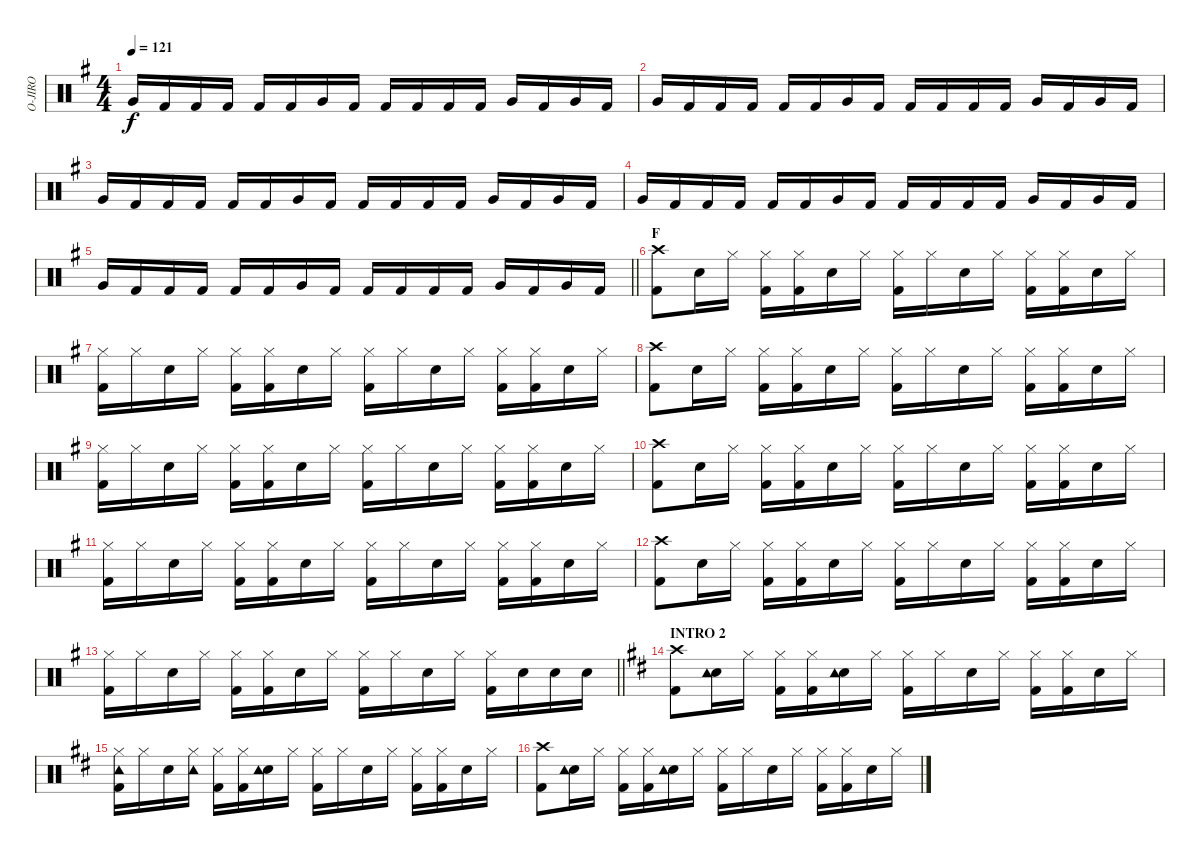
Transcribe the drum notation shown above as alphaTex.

\track ("O-JIRO" "O-JIRO") {instrument percussion}
\staff {score}
\articulation defaults
\ts (4 4)
\tempo 121
\clef neutral
\ks g "Very Low Tom (hit)".16{dy f} "Kick (hit) 2".16 "Kick (hit) 2".16 "Kick (hit) 2".16 "Kick (hit) 2".16 "Kick (hit) 2".16 "Very Low Tom (hit)".16 "Kick (hit) 2".16 "Kick (hit) 2".16 "Kick (hit) 2".16 "Kick (hit) 2".16 "Kick (hit) 2".16 "Very Low Tom (hit)".16 "Kick (hit) 2".16 "Very Low Tom (hit)".16 "Kick (hit) 2".16
|
"Very Low Tom (hit)".16 "Kick (hit) 2".16 "Kick (hit) 2".16 "Kick (hit) 2".16 "Kick (hit) 2".16 "Kick (hit) 2".16 "Very Low Tom (hit)".16 "Kick (hit) 2".16 "Kick (hit) 2".16 "Kick (hit) 2".16 "Kick (hit) 2".16 "Kick (hit) 2".16 "Very Low Tom (hit)".16 "Kick (hit) 2".16 "Very Low Tom (hit)".16 "Kick (hit) 2".16 |
"Very Low Tom (hit)".16 "Kick (hit) 2".16 "Kick (hit) 2".16 "Kick (hit) 2".16 "Kick (hit) 2".16 "Kick (hit) 2".16 "Very Low Tom (hit)".16 "Kick (hit) 2".16 "Kick (hit) 2".16 "Kick (hit) 2".16 "Kick (hit) 2".16 "Kick (hit) 2".16 "Very Low Tom (hit)".16 "Kick (hit) 2".16 "Very Low Tom (hit)".16 "Kick (hit) 2".16 |
"Very Low Tom (hit)".16 "Kick (hit) 2".16 "Kick (hit) 2".16 "Kick (hit) 2".16 "Kick (hit) 2".16 "Kick (hit) 2".16 "Very Low Tom (hit)".16 "Kick (hit) 2".16 "Kick (hit) 2".16 "Kick (hit) 2".16 "Kick (hit) 2".16 "Kick (hit) 2".16 "Very Low Tom (hit)".16 "Kick (hit) 2".16 "Very Low Tom (hit)".16 "Kick (hit) 2".16 |
\barLineRight lightlight "Very Low Tom (hit)".16 "Kick (hit) 2".16 "Kick (hit) 2".16 "Kick (hit) 2".16 "Kick (hit) 2".16 "Kick (hit) 2".16 "Very Low Tom (hit)".16 "Kick (hit) 2".16 "Kick (hit) 2".16 "Kick (hit) 2".16 "Kick (hit) 2".16 "Kick (hit) 2".16 "Very Low Tom (hit)".16 "Kick (hit) 2".16 "Very Low Tom (hit)".16 "Kick (hit) 2".16
|
\section ("" "F")
("Crash high (hit)" "Kick (hit) 2").8 "Snare (hit) 2".16 "Hi-Hat (closed)".16 ("Hi-Hat (closed)" "Kick (hit) 2").16 ("Hi-Hat (closed)" "Kick (hit) 2").16 "Snare (hit) 2".16 "Hi-Hat (closed)".16 ("Hi-Hat (closed)" "Kick (hit) 2").16 "Hi-Hat (closed)".16 "Snare (hit) 2".16 "Hi-Hat (closed)".16 ("Hi-Hat (closed)" "Kick (hit) 2").16 ("Hi-Hat (closed)" "Kick (hit) 2").16 "Snare (hit) 2".16 "Hi-Hat (closed)".16 |
("Hi-Hat (closed)" "Kick (hit) 2").16 "Hi-Hat (closed)".16 "Snare (hit) 2".16 "Hi-Hat (closed)".16 ("Hi-Hat (closed)" "Kick (hit) 2").16 ("Hi-Hat (closed)" "Kick (hit) 2").16 "Snare (hit) 2".16 "Hi-Hat (closed)".16 ("Hi-Hat (closed)" "Kick (hit) 2").16 "Hi-Hat (closed)".16 "Snare (hit) 2".16 "Hi-Hat (closed)".16 ("Hi-Hat (closed)" "Kick (hit) 2").16 ("Hi-Hat (closed)" "Kick (hit) 2").16 "Snare (hit) 2".16 "Hi-Hat (closed)".16 |
("Crash high (hit)" "Kick (hit) 2").8 "Snare (hit) 2".16 "Hi-Hat (closed)".16 ("Hi-Hat (closed)" "Kick (hit) 2").16 ("Hi-Hat (closed)" "Kick (hit) 2").16 "Snare (hit) 2".16 "Hi-Hat (closed)".16 ("Hi-Hat (closed)" "Kick (hit) 2").16 "Hi-Hat (closed)".16 "Snare (hit) 2".16 "Hi-Hat (closed)".16 ("Hi-Hat (closed)" "Kick (hit) 2").16 ("Hi-Hat (closed)" "Kick (hit) 2").16 "Snare (hit) 2".16 "Hi-Hat (closed)".16 |
("Hi-Hat (closed)" "Kick (hit) 2").16 "Hi-Hat (closed)".16 "Snare (hit) 2".16 "Hi-Hat (closed)".16 ("Hi-Hat (closed)" "Kick (hit) 2").16 ("Hi-Hat (closed)" "Kick (hit) 2").16 "Snare (hit) 2".16 "Hi-Hat (closed)".16 ("Hi-Hat (closed)" "Kick (hit) 2").16 "Hi-Hat (closed)".16 "Snare (hit) 2".16 "Hi-Hat (closed)".16 ("Hi-Hat (closed)" "Kick (hit) 2").16 ("Hi-Hat (closed)" "Kick (hit) 2").16 "Snare (hit) 2".16 "Hi-Hat (closed)".16 |
("Crash high (hit)" "Kick (hit) 2").8 "Snare (hit) 2".16 "Hi-Hat (closed)".16 ("Hi-Hat (closed)" "Kick (hit) 2").16 ("Hi-Hat (closed)" "Kick (hit) 2").16 "Snare (hit) 2".16 "Hi-Hat (closed)".16 ("Hi-Hat (closed)" "Kick (hit) 2").16 "Hi-Hat (closed)".16 "Snare (hit) 2".16 "Hi-Hat (closed)".16 ("Hi-Hat (closed)" "Kick (hit) 2").16 ("Hi-Hat (closed)" "Kick (hit) 2").16 "Snare (hit) 2".16 "Hi-Hat (closed)".16 |
("Hi-Hat (closed)" "Kick (hit) 2").16 "Hi-Hat (closed)".16 "Snare (hit) 2".16 "Hi-Hat (closed)".16 ("Hi-Hat (closed)" "Kick (hit) 2").16 ("Hi-Hat (closed)" "Kick (hit) 2").16 "Snare (hit) 2".16 "Hi-Hat (closed)".16 ("Hi-Hat (closed)" "Kick (hit) 2").16 "Hi-Hat (closed)".16 "Snare (hit) 2".16 "Hi-Hat (closed)".16 ("Hi-Hat (closed)" "Kick (hit) 2").16 ("Hi-Hat (closed)" "Kick (hit) 2").16 "Snare (hit) 2".16 "Hi-Hat (closed)".16 |
("Crash high (hit)" "Kick (hit) 2").8 "Snare (hit) 2".16 "Hi-Hat (closed)".16 ("Hi-Hat (closed)" "Kick (hit) 2").16 ("Hi-Hat (closed)" "Kick (hit) 2").16 "Snare (hit) 2".16 "Hi-Hat (closed)".16 ("Hi-Hat (closed)" "Kick (hit) 2").16 "Hi-Hat (closed)".16 "Snare (hit) 2".16 "Hi-Hat (closed)".16 ("Hi-Hat (closed)" "Kick (hit) 2").16 ("Hi-Hat (closed)" "Kick (hit) 2").16 "Snare (hit) 2".16 "Hi-Hat (closed)".16 |
\barLineRight lightlight
("Hi-Hat (closed)" "Kick (hit) 2").16 "Hi-Hat (closed)".16 "Snare (hit) 2".16 "Hi-Hat (closed)".16 ("Hi-Hat (closed)" "Kick (hit) 2").16 ("Hi-Hat (closed)" "Kick (hit) 2").16 "Snare (hit) 2".16 "Hi-Hat (closed)".16 ("Hi-Hat (closed)" "Kick (hit) 2").16 "Hi-Hat (closed)".16 "Snare (hit) 2".16 "Hi-Hat (closed)".16 ("Hi-Hat (closed)" "Kick (hit) 2").16 "Snare (hit) 2".16 "Snare (hit) 2".16 "Snare (hit) 2".16 |
\section ("" "INTRO 2")
\ks d
("Crash high (hit)" "Kick (hit) 2").8 ("Snare (hit) 2" "Tambourine (hit)").16 "Hi-Hat (closed)".16 ("Hi-Hat (closed)" "Kick (hit) 2").16 ("Hi-Hat (closed)" "Kick (hit) 2").16 ("Snare (hit) 2" "Tambourine (hit)").16 "Hi-Hat (closed)".16 ("Hi-Hat (closed)" "Kick (hit) 2").16 "Hi-Hat (closed)".16 "Snare (hit) 2".16 "Hi-Hat (closed)".16 ("Hi-Hat (closed)" "Kick (hit) 2").16 ("Hi-Hat (closed)" "Kick (hit) 2").16 "Snare (hit) 2".16 "Hi-Hat (closed)".16 |
("Hi-Hat (closed)" "Kick (hit) 2" "Tambourine (hit)").16 "Hi-Hat (closed)".16 "Snare (hit) 2".16 ("Hi-Hat (closed)" "Tambourine (hit)").16 ("Hi-Hat (closed)" "Kick (hit) 2").16 ("Hi-Hat (closed)" "Kick (hit) 2").16 ("Snare (hit) 2" "Tambourine (hit)").16 "Hi-Hat (closed)".16 ("Hi-Hat (closed)" "Kick (hit) 2").16 "Hi-Hat (closed)".16 "Snare (hit) 2".16 "Hi-Hat (closed)".16 ("Hi-Hat (closed)" "Kick (hit) 2").16 ("Hi-Hat (closed)" "Kick (hit) 2").16 "Snare (hit) 2".16 "Hi-Hat (closed)".16 |
("Crash high (hit)" "Kick (hit) 2").8 ("Snare (hit) 2" "Tambourine (hit)").16 "Hi-Hat (closed)".16 ("Hi-Hat (closed)" "Kick (hit) 2").16 ("Hi-Hat (closed)" "Kick (hit) 2").16 ("Snare (hit) 2" "Tambourine (hit)").16 "Hi-Hat (closed)".16 ("Hi-Hat (closed)" "Kick (hit) 2").16 "Hi-Hat (closed)".16 "Snare (hit) 2".16 "Hi-Hat (closed)".16 ("Hi-Hat (closed)" "Kick (hit) 2").16 ("Hi-Hat (closed)" "Kick (hit) 2").16 "Snare (hit) 2".16 "Hi-Hat (closed)".16
